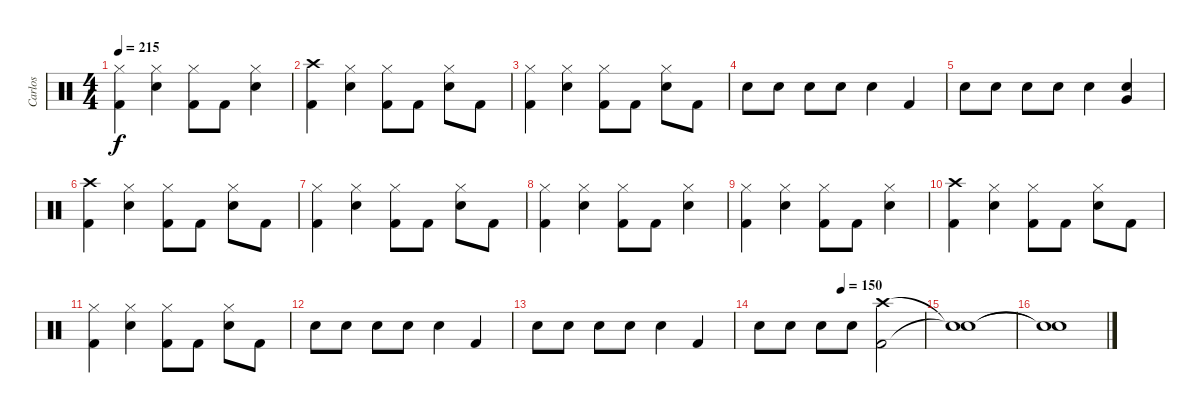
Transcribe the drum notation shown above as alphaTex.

\track ("Carlos" "Carlos") {instrument percussion}
\staff {score}
\articulation defaults
\ts (4 4)
\tempo 215
\clef neutral
\ks c
("Hi-Hat (closed)" "Kick (hit) 2").4{dy f} ("Hi-Hat (closed)" "Snare (hit) 2").4 ("Hi-Hat (closed)" "Kick (hit) 2").8 "Kick (hit) 2".8 ("Hi-Hat (closed)" "Snare (hit) 2").4 |
("Crash high (hit)" "Kick (hit) 2").4 ("Hi-Hat (closed)" "Snare (hit) 2").4 ("Hi-Hat (closed)" "Kick (hit) 2").8 "Kick (hit) 2".8 ("Hi-Hat (closed)" "Snare (hit) 2").8 "Kick (hit) 2".8 |
("Hi-Hat (closed)" "Kick (hit) 2").4 ("Hi-Hat (closed)" "Snare (hit) 2").4 ("Hi-Hat (closed)" "Kick (hit) 2").8 "Kick (hit) 2".8 ("Hi-Hat (closed)" "Snare (hit) 2").8 "Kick (hit) 2".8 |
"Snare (hit) 2".8 "Snare (hit) 2".8 "Snare (hit) 2".8 "Snare (hit) 2".8 "Snare (hit) 2".4 "Kick (hit) 2".4 |
"Snare (hit) 2".8 "Snare (hit) 2".8 "Snare (hit) 2".8 "Snare (hit) 2".8 "Snare (hit) 2".4 ("Very Low Tom (hit)" "Snare (hit) 2").4 |
("Crash high (hit)" "Kick (hit) 2").4 ("Hi-Hat (closed)" "Snare (hit) 2").4 ("Hi-Hat (closed)" "Kick (hit) 2").8 "Kick (hit) 2".8 ("Hi-Hat (closed)" "Snare (hit) 2").8 "Kick (hit) 2".8 |
("Hi-Hat (closed)" "Kick (hit) 2").4 ("Hi-Hat (closed)" "Snare (hit) 2").4 ("Hi-Hat (closed)" "Kick (hit) 2").8 "Kick (hit) 2".8 ("Hi-Hat (closed)" "Snare (hit) 2").8 "Kick (hit) 2".8 |
("Hi-Hat (closed)" "Kick (hit) 2").4 ("Hi-Hat (closed)" "Snare (hit) 2").4 ("Hi-Hat (closed)" "Kick (hit) 2").8 "Kick (hit) 2".8 ("Hi-Hat (closed)" "Snare (hit) 2").4 |
("Hi-Hat (closed)" "Kick (hit) 2").4 ("Hi-Hat (closed)" "Snare (hit) 2").4 ("Hi-Hat (closed)" "Kick (hit) 2").8 "Kick (hit) 2".8 ("Hi-Hat (closed)" "Snare (hit) 2").4 |
("Crash high (hit)" "Kick (hit) 2").4 ("Hi-Hat (closed)" "Snare (hit) 2").4 ("Hi-Hat (closed)" "Kick (hit) 2").8 "Kick (hit) 2".8 ("Hi-Hat (closed)" "Snare (hit) 2").8 "Kick (hit) 2".8 |
("Hi-Hat (closed)" "Kick (hit) 2").4 ("Hi-Hat (closed)" "Snare (hit) 2").4 ("Hi-Hat (closed)" "Kick (hit) 2").8 "Kick (hit) 2".8 ("Hi-Hat (closed)" "Snare (hit) 2").8 "Kick (hit) 2".8 |
"Snare (hit) 2".8 "Snare (hit) 2".8 "Snare (hit) 2".8 "Snare (hit) 2".8 "Snare (hit) 2".4 "Kick (hit) 2".4 |
"Snare (hit) 2".8 "Snare (hit) 2".8 "Snare (hit) 2".8 "Snare (hit) 2".8 "Snare (hit) 2".4 "Kick (hit) 2".4 |
\tempo (150 0.5)
"Snare (hit) 2".8 "Snare (hit) 2".8 "Snare (hit) 2".8 "Snare (hit) 2".8 ("Crash high (hit)" "Kick (hit) 2").2 |
("Snare (hit)"{t} "Snare (hit)"{t}).1 |
("Snare (hit)"{t} "Snare (hit)"{t}).1
